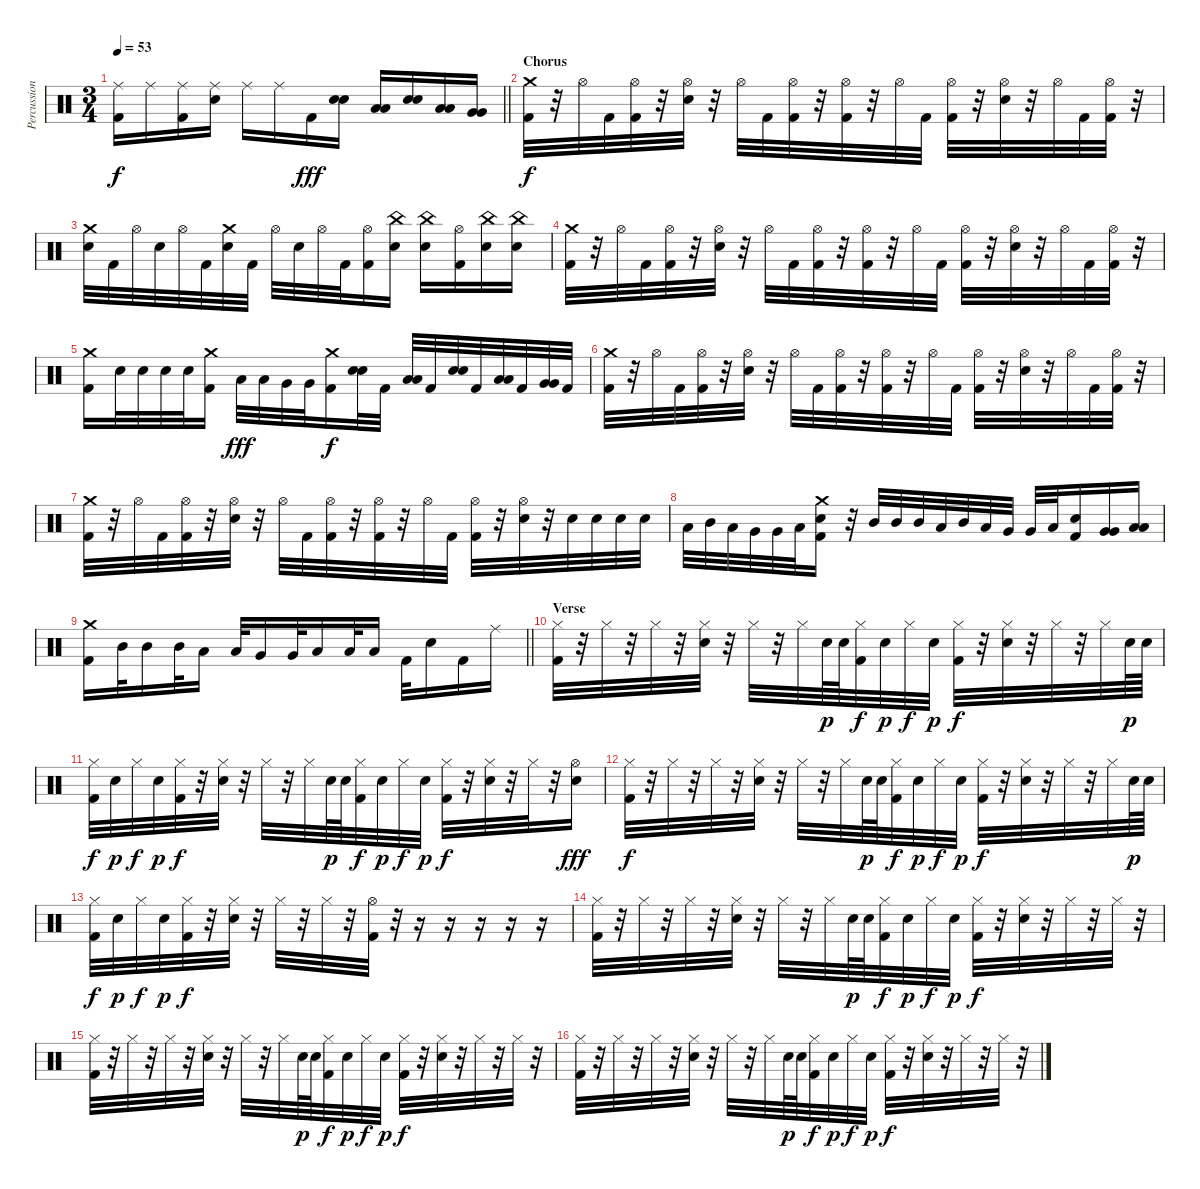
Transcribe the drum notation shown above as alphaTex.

\track ("Percussion" "Percussion") {instrument percussion}
\staff {score}
\articulation defaults
\ts (3 4)
\tempo 53
\clef neutral
\barLineRight lightlight
\ks c
("Ride (middle)" "Kick (hit) 2").16{dy f} "Ride (middle)".16 ("Ride (middle)" "Kick (hit) 2").16 ("Ride (middle)" "Snare (hit) 2").16 "Ride (middle)".16 "Ride (middle)".16 "Kick (hit) 2".16{dy fff} ("Snare (hit) 2" "Snare (hit) 2").16 ("Low Tom (hit)" "Low Tom (hit)").16 ("Snare (hit) 2" "Snare (hit) 2").16 ("Low Tom (hit)" "Low Tom (hit)").16 ("Very Low Tom (hit)" "Very Low Tom (hit)").16 |
\section ("" "Chorus")
("Crash medium (hit)" "Kick (hit) 2").32{dy f} r.32 "Hi-Hat (open)".32 "Kick (hit) 2".32 ("Hi-Hat (open)" "Kick (hit) 2").32 r.32 ("Hi-Hat (open)" "Snare (hit) 2").32 r.32 "Hi-Hat (open)".32 "Kick (hit) 2".32 ("Hi-Hat (open)" "Kick (hit) 2").32 r.32 ("Hi-Hat (open)" "Kick (hit) 2").32 r.32 "Hi-Hat (open)".32 "Kick (hit) 2".32 ("Hi-Hat (open)" "Kick (hit) 2").32 r.32 ("Hi-Hat (open)" "Snare (hit) 2").32 r.32 "Hi-Hat (open)".32 "Kick (hit) 2".32 ("Hi-Hat (open)" "Kick (hit) 2").32 r.32 |
("Crash medium (hit)" "Snare (hit) 2").32 "Kick (hit) 2".32 "Hi-Hat (open)".32 "Snare (hit) 2".32 "Hi-Hat (open)".32 "Kick (hit) 2".32 ("Crash medium (hit)" "Snare (hit) 2").32 "Kick (hit) 2".32 "Hi-Hat (open)".32 "Snare (hit) 2".32 "Hi-Hat (open)".32 "Kick (hit) 2".32 ("Hi-Hat (open)" "Kick (hit) 2").16 ("China (hit)" "Snare (hit) 2").16 ("China (hit)" "Snare (hit) 2").16 ("Hi-Hat (open)" "Kick (hit) 2").16 ("China (hit)" "Snare (hit) 2").16 ("China (hit)" "Snare (hit) 2").16 |
("Crash medium (hit)" "Kick (hit) 2").32 r.32 "Hi-Hat (open)".32 "Kick (hit) 2".32 ("Hi-Hat (open)" "Kick (hit) 2").32 r.32 ("Hi-Hat (open)" "Snare (hit) 2").32 r.32 "Hi-Hat (open)".32 "Kick (hit) 2".32 ("Hi-Hat (open)" "Kick (hit) 2").32 r.32 ("Hi-Hat (open)" "Kick (hit) 2").32 r.32 "Hi-Hat (open)".32 "Kick (hit) 2".32 ("Hi-Hat (open)" "Kick (hit) 2").32 r.32 ("Hi-Hat (open)" "Snare (hit) 2").32 r.32 "Hi-Hat (open)".32 "Kick (hit) 2".32 ("Hi-Hat (open)" "Kick (hit) 2").32 r.32 |
("Crash medium (hit)" "Kick (hit) 2").16 "Snare (hit) 2".32 "Snare (hit) 2".32 "Snare (hit) 2".32 "Snare (hit) 2".32 ("Crash medium (hit)" "Kick (hit) 2").16 "Low Tom (hit)".32{dy fff} "Low Tom (hit)".32 "Very Low Tom (hit)".32 "Very Low Tom (hit)".32 ("Crash medium (hit)" "Kick (hit) 2").16{dy f} ("Snare (hit) 2" "Snare (hit) 2").32 "Kick (hit) 2".32 ("Low Tom (hit)" "Low Tom (hit)").32 "Kick (hit) 2".32 ("Snare (hit) 2" "Snare (hit) 2").32 "Kick (hit) 2".32 ("Low Tom (hit)" "Low Tom (hit)").32 "Kick (hit) 2".32 ("Very Low Tom (hit)" "Very Low Tom (hit)").32 "Kick (hit) 2".32 |
("Crash medium (hit)" "Kick (hit) 2").32 r.32 "Hi-Hat (open)".32 "Kick (hit) 2".32 ("Hi-Hat (open)" "Kick (hit) 2").32 r.32 ("Hi-Hat (open)" "Snare (hit) 2").32 r.32 "Hi-Hat (open)".32 "Kick (hit) 2".32 ("Hi-Hat (open)" "Kick (hit) 2").32 r.32 ("Hi-Hat (open)" "Kick (hit) 2").32 r.32 "Hi-Hat (open)".32 "Kick (hit) 2".32 ("Hi-Hat (open)" "Kick (hit) 2").32 r.32 ("Hi-Hat (open)" "Snare (hit) 2").32 r.32 "Hi-Hat (open)".32 "Kick (hit) 2".32 ("Hi-Hat (open)" "Kick (hit) 2").32 r.32 |
("Crash medium (hit)" "Kick (hit) 2").32 r.32 "Hi-Hat (open)".32 "Kick (hit) 2".32 ("Hi-Hat (open)" "Kick (hit) 2").32 r.32 ("Hi-Hat (open)" "Snare (hit) 2").32 r.32 "Hi-Hat (open)".32 "Kick (hit) 2".32 ("Hi-Hat (open)" "Kick (hit) 2").32 r.32 ("Hi-Hat (open)" "Kick (hit) 2").32 r.32 "Hi-Hat (open)".32 "Kick (hit) 2".32 ("Hi-Hat (open)" "Kick (hit) 2").32 r.32 ("Hi-Hat (open)" "Snare (hit) 2").32 r.32 "Snare (hit) 2".32 "Snare (hit) 2".32 "Snare (hit) 2".32 "Snare (hit) 2".32 |
"Low Tom (hit)".32 "Mid Tom (hit)".32 "Low Tom (hit)".32 "Very Low Tom (hit)".32 "Very Low Tom (hit)".32 "Low Floor Tom (hit)".32 ("Crash medium (hit)" "Snare (hit) 2" "Kick (hit) 2").16 r.32 "Mid Tom (hit)".32 "Mid Tom (hit)".32 "Mid Tom (hit)".32 "Low Tom (hit)".32 "Mid Tom (hit)".32 "Low Tom (hit)".32 "Very Low Tom (hit)".32 "Very Low Tom (hit)".32 "Low Floor Tom (hit)".32 ("Snare (hit) 2" "Kick (hit) 2").16 ("Very Low Tom (hit)" "Very Low Tom (hit)").16 ("Low Tom (hit)" "Low Tom (hit)").16 |
\barLineRight lightlight
("Crash medium (hit)" "Kick (hit) 2").16 "Mid Tom (hit)".32 "Mid Tom (hit)".16 "Mid Tom (hit)".32 "Low Tom (hit)".16 "Low Tom (hit)".32 "Very Low Tom (hit)".16 "Very Low Tom (hit)".32 "Low Floor Tom (hit)".16 "Low Floor Tom (hit)".32 "Low Floor Tom (hit)".16 "Kick (hit) 2".32 "Snare (hit) 2".16 "Kick (hit) 2".16 "Ride (middle)".16 |
\section ("" "Verse")
("Hi-Hat (closed)" "Kick (hit) 2").32 r.32 "Hi-Hat (closed)".32 r.32 "Hi-Hat (closed)".32 r.32 ("Hi-Hat (closed)" "Snare (hit) 2").32 r.32 "Hi-Hat (closed)".32 r.32 "Hi-Hat (closed)".32 "Snare (hit) 2".64{dy p} "Snare (hit) 2".64 ("Hi-Hat (closed)" "Kick (hit) 2").32{dy f} "Snare (hit) 2".32{dy p} "Hi-Hat (closed)".32{dy f} "Snare (hit) 2".32{dy p} ("Hi-Hat (closed)" "Kick (hit) 2").32{dy f} r.32 ("Hi-Hat (closed)" "Snare (hit) 2").32 r.32 "Hi-Hat (closed)".32 r.32 "Hi-Hat (closed)".32 "Snare (hit) 2".64{dy p} "Snare (hit) 2".64 |
("Hi-Hat (closed)" "Kick (hit) 2").32{dy f} "Snare (hit) 2".32{dy p} "Hi-Hat (closed)".32{dy f} "Snare (hit) 2".32{dy p} ("Hi-Hat (closed)" "Kick (hit) 2").32{dy f} r.32 ("Hi-Hat (closed)" "Snare (hit) 2").32 r.32 "Hi-Hat (closed)".32 r.32 "Hi-Hat (closed)".32 "Snare (hit) 2".64{dy p} "Snare (hit) 2".64 ("Hi-Hat (closed)" "Kick (hit) 2").32{dy f} "Snare (hit) 2".32{dy p} "Hi-Hat (closed)".32{dy f} "Snare (hit) 2".32{dy p} ("Hi-Hat (closed)" "Kick (hit) 2").32{dy f} r.32 ("Hi-Hat (closed)" "Snare (hit) 2").32 r.32 "Hi-Hat (closed)".32 r.32 ("Hi-Hat (open)" "Snare (hit) 2").16{dy fff} |
("Hi-Hat (closed)" "Kick (hit) 2").32{dy f} r.32 "Hi-Hat (closed)".32 r.32 "Hi-Hat (closed)".32 r.32 ("Hi-Hat (closed)" "Snare (hit) 2").32 r.32 "Hi-Hat (closed)".32 r.32 "Hi-Hat (closed)".32 "Snare (hit) 2".64{dy p} "Snare (hit) 2".64 ("Hi-Hat (closed)" "Kick (hit) 2").32{dy f} "Snare (hit) 2".32{dy p} "Hi-Hat (closed)".32{dy f} "Snare (hit) 2".32{dy p} ("Hi-Hat (closed)" "Kick (hit) 2").32{dy f} r.32 ("Hi-Hat (closed)" "Snare (hit) 2").32 r.32 "Hi-Hat (closed)".32 r.32 "Hi-Hat (closed)".32 "Snare (hit) 2".64{dy p} "Snare (hit) 2".64 |
("Hi-Hat (closed)" "Kick (hit) 2").32{dy f} "Snare (hit) 2".32{dy p} "Hi-Hat (closed)".32{dy f} "Snare (hit) 2".32{dy p} ("Hi-Hat (closed)" "Kick (hit) 2").32{dy f} r.32 ("Hi-Hat (closed)" "Snare (hit) 2").32 r.32 "Hi-Hat (closed)".32 r.32 "Hi-Hat (closed)".32 r.32 ("Hi-Hat (open)" "Kick (hit) 2").32 r.32 r.16 r.16 r.16 r.16 r.16 |
("Hi-Hat (closed)" "Kick (hit) 2").32 r.32 "Hi-Hat (closed)".32 r.32 "Hi-Hat (closed)".32 r.32 ("Hi-Hat (closed)" "Snare (hit) 2").32 r.32 "Hi-Hat (closed)".32 r.32 "Hi-Hat (closed)".32 "Snare (hit) 2".64{dy p} "Snare (hit) 2".64 ("Hi-Hat (closed)" "Kick (hit) 2").32{dy f} "Snare (hit) 2".32{dy p} "Hi-Hat (closed)".32{dy f} "Snare (hit) 2".32{dy p} ("Hi-Hat (closed)" "Kick (hit) 2").32{dy f} r.32 ("Hi-Hat (closed)" "Snare (hit) 2").32 r.32 "Hi-Hat (closed)".32 r.32 "Hi-Hat (closed)".32 r.32 |
("Hi-Hat (closed)" "Kick (hit) 2").32 r.32 "Hi-Hat (closed)".32 r.32 "Hi-Hat (closed)".32 r.32 ("Hi-Hat (closed)" "Snare (hit) 2").32 r.32 "Hi-Hat (closed)".32 r.32 "Hi-Hat (closed)".32 "Snare (hit) 2".64{dy p} "Snare (hit) 2".64 ("Hi-Hat (closed)" "Kick (hit) 2").32{dy f} "Snare (hit) 2".32{dy p} "Hi-Hat (closed)".32{dy f} "Snare (hit) 2".32{dy p} ("Hi-Hat (closed)" "Kick (hit) 2").32{dy f} r.32 ("Hi-Hat (closed)" "Snare (hit) 2").32 r.32 "Hi-Hat (closed)".32 r.32 "Hi-Hat (closed)".32 r.32 |
("Hi-Hat (closed)" "Kick (hit) 2").32 r.32 "Hi-Hat (closed)".32 r.32 "Hi-Hat (closed)".32 r.32 ("Hi-Hat (closed)" "Snare (hit) 2").32 r.32 "Hi-Hat (closed)".32 r.32 "Hi-Hat (closed)".32 "Snare (hit) 2".64{dy p} "Snare (hit) 2".64 ("Hi-Hat (closed)" "Kick (hit) 2").32{dy f} "Snare (hit) 2".32{dy p} "Hi-Hat (closed)".32{dy f} "Snare (hit) 2".32{dy p} ("Hi-Hat (closed)" "Kick (hit) 2").32{dy f} r.32 ("Hi-Hat (closed)" "Snare (hit) 2").32 r.32 "Hi-Hat (closed)".32 r.32 "Hi-Hat (closed)".32 r.32
